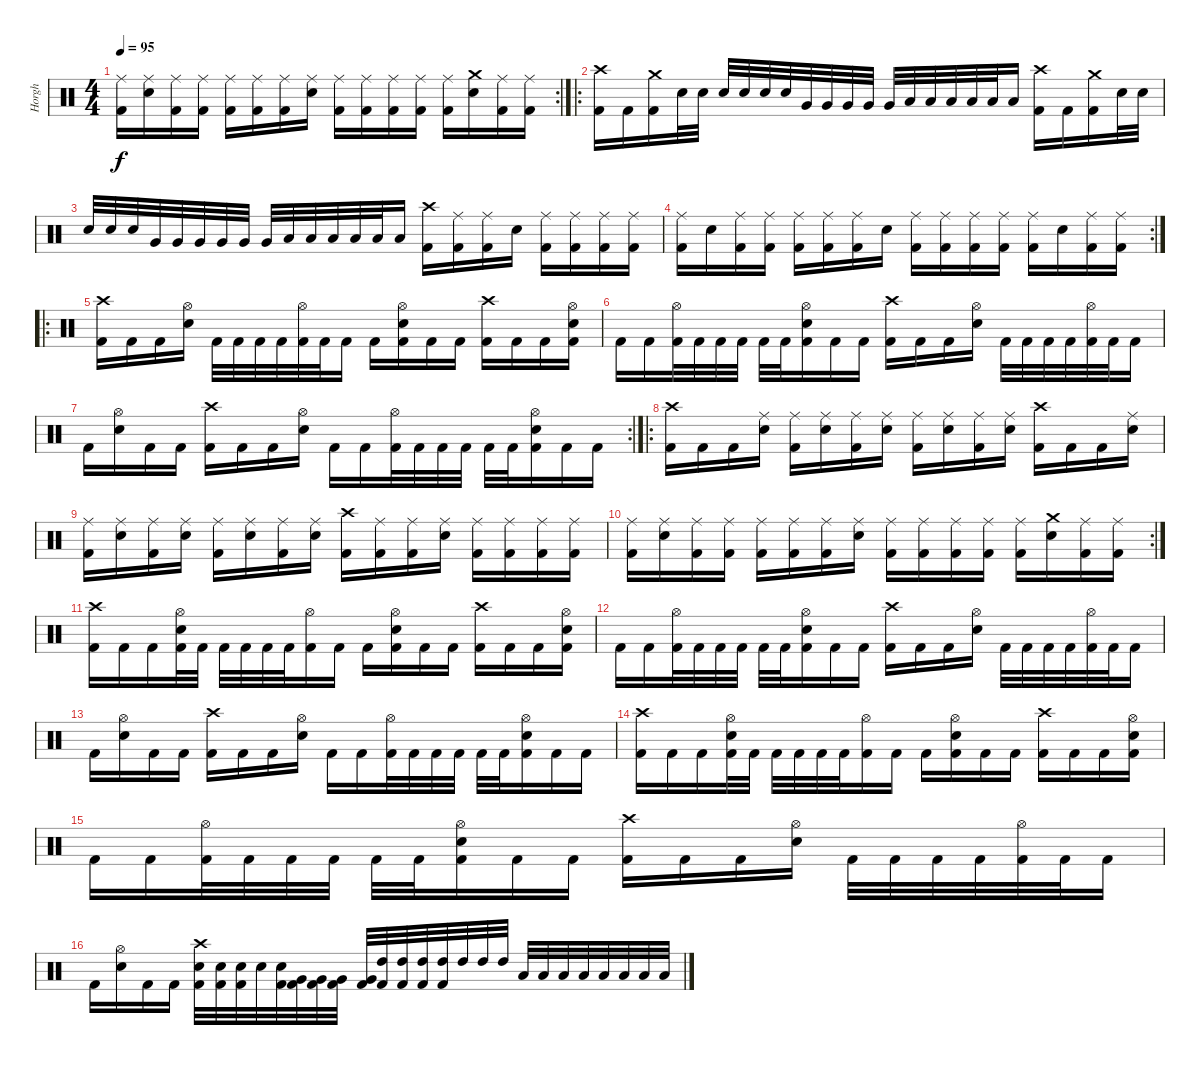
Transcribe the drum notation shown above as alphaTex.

\track ("Horgh" "Horgh") {instrument percussion}
\staff {score}
\articulation defaults
\rc 2
\ts (4 4)
\tempo 95
\clef neutral
\ks c
("Ride (middle)" "Kick (hit) 2").16{dy f} ("Ride (middle)" "Snare (hit) 2").16 ("Ride (middle)" "Kick (hit) 2").16 ("Ride (middle)" "Kick (hit) 2").16 ("Ride (middle)" "Kick (hit) 2").16 ("Ride (middle)" "Kick (hit) 2").16 ("Ride (middle)" "Kick (hit) 2").16 ("Ride (middle)" "Snare (hit) 2").16 ("Ride (middle)" "Kick (hit) 2").16 ("Ride (middle)" "Kick (hit) 2").16 ("Ride (middle)" "Kick (hit) 2").16 ("Ride (middle)" "Kick (hit) 2").16 ("Ride (middle)" "Kick (hit) 2").16 ("Crash medium (hit)" "Snare (hit) 2").16 ("Ride (middle)" "Kick (hit) 2").16 ("Ride (middle)" "Kick (hit) 2").16 |
\ro
("Crash high (hit)" "Kick (hit) 2").16 "Kick (hit) 2".16 ("Crash medium (hit)" "Kick (hit) 2").16 "Snare (hit) 2".32 "Snare (hit) 2".32 "Snare (hit) 2".32 "Snare (hit) 2".32 "Snare (hit) 2".32 "Snare (hit) 2".32 "Very Low Tom (hit)".32 "Very Low Tom (hit)".32 "Very Low Tom (hit)".32 "Very Low Tom (hit)".32 "Very Low Tom (hit)".32 "Low Tom (hit)".32 "Low Tom (hit)".32 "Low Tom (hit)".32 "Low Tom (hit)".32 "Low Tom (hit)".32 "Low Tom (hit)".16 ("Crash high (hit)" "Kick (hit) 2").16 "Kick (hit) 2".16 ("Crash medium (hit)" "Kick (hit) 2").16 "Snare (hit) 2".32 "Snare (hit) 2".32 |
"Snare (hit) 2".32 "Snare (hit) 2".32 "Snare (hit) 2".32 "Very Low Tom (hit)".32 "Very Low Tom (hit)".32 "Very Low Tom (hit)".32 "Very Low Tom (hit)".32 "Very Low Tom (hit)".32 "Very Low Tom (hit)".32 "Low Tom (hit)".32 "Low Tom (hit)".32 "Low Tom (hit)".32 "Low Tom (hit)".32 "Low Tom (hit)".32 "Low Tom (hit)".16 ("Crash high (hit)" "Kick (hit) 2").16 ("Ride (middle)" "Kick (hit) 2").16 ("Ride (middle)" "Kick (hit) 2").16 "Snare (hit) 2".16 ("Ride (middle)" "Kick (hit) 2").16 ("Ride (middle)" "Kick (hit) 2").16 ("Ride (middle)" "Kick (hit) 2").16 ("Ride (middle)" "Kick (hit) 2").16 |
\rc 2
("Ride (middle)" "Kick (hit) 2").16 "Snare (hit) 2".16 ("Ride (middle)" "Kick (hit) 2").16 ("Ride (middle)" "Kick (hit) 2").16 ("Ride (middle)" "Kick (hit) 2").16 ("Ride (middle)" "Kick (hit) 2").16 ("Ride (middle)" "Kick (hit) 2").16 "Snare (hit) 2".16 ("Ride (middle)" "Kick (hit) 2").16 ("Ride (middle)" "Kick (hit) 2").16 ("Ride (middle)" "Kick (hit) 2").16 ("Ride (middle)" "Kick (hit) 2").16 ("Ride (middle)" "Kick (hit) 2").16 "Snare (hit) 2".16 ("Ride (middle)" "Kick (hit) 2").16 ("Ride (middle)" "Kick (hit) 2").16 |
\ro
("Crash high (hit)" "Kick (hit) 2").16 "Kick (hit) 2".16 "Kick (hit) 2".16 ("Hi-Hat (open)" "Snare (hit) 2").16 "Kick (hit) 2".32 "Kick (hit) 2".32 "Kick (hit) 2".32 "Kick (hit) 2".32 ("Hi-Hat (open)" "Kick (hit) 2").32 "Kick (hit) 2".32 "Kick (hit) 2".16 "Kick (hit) 2".16 ("Hi-Hat (open)" "Snare (hit) 2" "Kick (hit) 2").16 "Kick (hit) 2".16 "Kick (hit) 2".16 ("Crash high (hit)" "Kick (hit) 2").16 "Kick (hit) 2".16 "Kick (hit) 2".16 ("Hi-Hat (open)" "Snare (hit) 2" "Kick (hit) 2").16 |
"Kick (hit) 2".16 "Kick (hit) 2".16 ("Hi-Hat (open)" "Kick (hit) 2").32 "Kick (hit) 2".32 "Kick (hit) 2".32 "Kick (hit) 2".32 "Kick (hit) 2".32 "Kick (hit) 2".32 ("Hi-Hat (open)" "Snare (hit) 2" "Kick (hit) 2").16 "Kick (hit) 2".16 "Kick (hit) 2".16 ("Crash high (hit)" "Kick (hit) 2").16 "Kick (hit) 2".16 "Kick (hit) 2".16 ("Hi-Hat (open)" "Snare (hit) 2").16 "Kick (hit) 2".32 "Kick (hit) 2".32 "Kick (hit) 2".32 "Kick (hit) 2".32 ("Hi-Hat (open)" "Kick (hit) 2").32 "Kick (hit) 2".32 "Kick (hit) 2".16 |
\rc 2 "Kick (hit) 2".16
("Hi-Hat (open)" "Snare (hit) 2").16 "Kick (hit) 2".16 "Kick (hit) 2".16 ("Crash high (hit)" "Kick (hit) 2").16 "Kick (hit) 2".16 "Kick (hit) 2".16 ("Hi-Hat (open)" "Snare (hit) 2").16 "Kick (hit) 2".16 "Kick (hit) 2".16 ("Hi-Hat (open)" "Kick (hit) 2").32 "Kick (hit) 2".32 "Kick (hit) 2".32 "Kick (hit) 2".32 "Kick (hit) 2".32 "Kick (hit) 2".32 ("Hi-Hat (open)" "Snare (hit) 2" "Kick (hit) 2").16 "Kick (hit) 2".16 "Kick (hit) 2".16 |
\ro
("Crash high (hit)" "Kick (hit) 2").16 "Kick (hit) 2".16 "Kick (hit) 2".16 ("Ride (middle)" "Snare (hit) 2").16 ("Ride (middle)" "Kick (hit) 2").16 ("Ride (middle)" "Snare (hit) 2").16 ("Ride (middle)" "Kick (hit) 2").16 ("Ride (middle)" "Snare (hit) 2").16 ("Ride (middle)" "Kick (hit) 2").16 ("Ride (middle)" "Snare (hit) 2").16 ("Ride (middle)" "Kick (hit) 2").16 ("Ride (middle)" "Snare (hit) 2").16 ("Crash high (hit)" "Kick (hit) 2").16 "Kick (hit) 2".16 "Kick (hit) 2".16 ("Ride (middle)" "Snare (hit) 2").16 |
("Ride (middle)" "Kick (hit) 2").16 ("Ride (middle)" "Snare (hit) 2").16 ("Ride (middle)" "Kick (hit) 2").16 ("Ride (middle)" "Snare (hit) 2").16 ("Ride (middle)" "Kick (hit) 2").16 ("Ride (middle)" "Snare (hit) 2").16 ("Ride (middle)" "Kick (hit) 2").16 ("Ride (middle)" "Snare (hit) 2").16 ("Crash high (hit)" "Kick (hit) 2").16 ("Ride (middle)" "Kick (hit) 2").16 ("Ride (middle)" "Kick (hit) 2").16 ("Ride (middle)" "Snare (hit) 2").16 ("Ride (middle)" "Kick (hit) 2").16 ("Ride (middle)" "Kick (hit) 2").16 ("Ride (middle)" "Kick (hit) 2").16 ("Ride (middle)" "Kick (hit) 2").16 |
\rc 2
("Ride (middle)" "Kick (hit) 2").16 ("Ride (middle)" "Snare (hit) 2").16 ("Ride (middle)" "Kick (hit) 2").16 ("Ride (middle)" "Kick (hit) 2").16 ("Ride (middle)" "Kick (hit) 2").16 ("Ride (middle)" "Kick (hit) 2").16 ("Ride (middle)" "Kick (hit) 2").16 ("Ride (middle)" "Snare (hit) 2").16 ("Ride (middle)" "Kick (hit) 2").16 ("Ride (middle)" "Kick (hit) 2").16 ("Ride (middle)" "Kick (hit) 2").16 ("Ride (middle)" "Kick (hit) 2").16 ("Ride (middle)" "Kick (hit) 2").16 ("Crash medium (hit)" "Snare (hit) 2").16 ("Ride (middle)" "Kick (hit) 2").16 ("Ride (middle)" "Kick (hit) 2").16 |
("Crash high (hit)" "Kick (hit) 2").16 "Kick (hit) 2".16 "Kick (hit) 2".16 ("Hi-Hat (open)" "Snare (hit) 2" "Kick (hit) 2").32 "Kick (hit) 2".32 "Kick (hit) 2".32 "Kick (hit) 2".32 "Kick (hit) 2".32 "Kick (hit) 2".32 ("Hi-Hat (open)" "Kick (hit) 2").16 "Kick (hit) 2".16 "Kick (hit) 2".16 ("Hi-Hat (open)" "Snare (hit) 2" "Kick (hit) 2").16 "Kick (hit) 2".16 "Kick (hit) 2".16 ("Crash high (hit)" "Kick (hit) 2").16 "Kick (hit) 2".16 "Kick (hit) 2".16 ("Hi-Hat (open)" "Snare (hit) 2" "Kick (hit) 2").16 |
"Kick (hit) 2".16 "Kick (hit) 2".16 ("Hi-Hat (open)" "Kick (hit) 2").32 "Kick (hit) 2".32 "Kick (hit) 2".32 "Kick (hit) 2".32 "Kick (hit) 2".32 "Kick (hit) 2".32 ("Hi-Hat (open)" "Snare (hit) 2" "Kick (hit) 2").16 "Kick (hit) 2".16 "Kick (hit) 2".16 ("Crash high (hit)" "Kick (hit) 2").16 "Kick (hit) 2".16 "Kick (hit) 2".16 ("Hi-Hat (open)" "Snare (hit) 2").16 "Kick (hit) 2".32 "Kick (hit) 2".32 "Kick (hit) 2".32 "Kick (hit) 2".32 ("Hi-Hat (open)" "Kick (hit) 2").32 "Kick (hit) 2".32 "Kick (hit) 2".16 |
"Kick (hit) 2".16 ("Hi-Hat (open)" "Snare (hit) 2").16 "Kick (hit) 2".16 "Kick (hit) 2".16 ("Crash high (hit)" "Kick (hit) 2").16 "Kick (hit) 2".16 "Kick (hit) 2".16 ("Hi-Hat (open)" "Snare (hit) 2").16 "Kick (hit) 2".16 "Kick (hit) 2".16 ("Hi-Hat (open)" "Kick (hit) 2").32 "Kick (hit) 2".32 "Kick (hit) 2".32 "Kick (hit) 2".32 "Kick (hit) 2".32 "Kick (hit) 2".32 ("Hi-Hat (open)" "Snare (hit) 2" "Kick (hit) 2").16 "Kick (hit) 2".16 "Kick (hit) 2".16 |
("Crash high (hit)" "Kick (hit) 2").16 "Kick (hit) 2".16 "Kick (hit) 2".16 ("Hi-Hat (open)" "Snare (hit) 2" "Kick (hit) 2").32 "Kick (hit) 2".32 "Kick (hit) 2".32 "Kick (hit) 2".32 "Kick (hit) 2".32 "Kick (hit) 2".32 ("Hi-Hat (open)" "Kick (hit) 2").16 "Kick (hit) 2".16 "Kick (hit) 2".16 ("Hi-Hat (open)" "Snare (hit) 2" "Kick (hit) 2").16 "Kick (hit) 2".16 "Kick (hit) 2".16 ("Crash high (hit)" "Kick (hit) 2").16 "Kick (hit) 2".16 "Kick (hit) 2".16 ("Hi-Hat (open)" "Snare (hit) 2" "Kick (hit) 2").16 |
"Kick (hit) 2".16 "Kick (hit) 2".16 ("Hi-Hat (open)" "Kick (hit) 2").32 "Kick (hit) 2".32 "Kick (hit) 2".32 "Kick (hit) 2".32 "Kick (hit) 2".32 "Kick (hit) 2".32 ("Hi-Hat (open)" "Snare (hit) 2" "Kick (hit) 2").16 "Kick (hit) 2".16 "Kick (hit) 2".16 ("Crash high (hit)" "Kick (hit) 2").16 "Kick (hit) 2".16 "Kick (hit) 2".16 ("Hi-Hat (open)" "Snare (hit) 2").16 "Kick (hit) 2".32 "Kick (hit) 2".32 "Kick (hit) 2".32 "Kick (hit) 2".32 ("Hi-Hat (open)" "Kick (hit) 2").32 "Kick (hit) 2".32 "Kick (hit) 2".16 |
"Kick (hit) 2".16 ("Hi-Hat (open)" "Snare (hit) 2").16 "Kick (hit) 2".16 "Kick (hit) 2".16 ("Crash high (hit)" "Snare (hit) 2" "Kick (hit) 2").32 ("Snare (hit) 2" "Kick (hit) 2").32 ("Snare (hit) 2" "Kick (hit) 2").32 "Snare (hit) 2".32 ("Snare (hit) 2" "Kick (hit) 2").32 ("Very Low Tom (hit)" "Kick (hit) 2").32 ("Very Low Tom (hit)" "Kick (hit) 2").32 ("Very Low Tom (hit)" "Kick (hit) 2").32 ("Very Low Tom (hit)" "Kick (hit) 2").32 ("High Tom (hit)" "Kick (hit) 2").32 ("High Tom (hit)" "Kick (hit) 2").32 ("High Tom (hit)" "Kick (hit) 2").32 ("High Tom (hit)" "Kick (hit) 2").32 "High Tom (hit)".32 "High Tom (hit)".32 "High Tom (hit)".32 "Low Tom (hit)".32 "Low Tom (hit)".32 "Low Tom (hit)".32 "Low Tom (hit)".32 "Low Tom (hit)".32 "Low Tom (hit)".32 "Low Tom (hit)".32 "Low Tom (hit)".32
